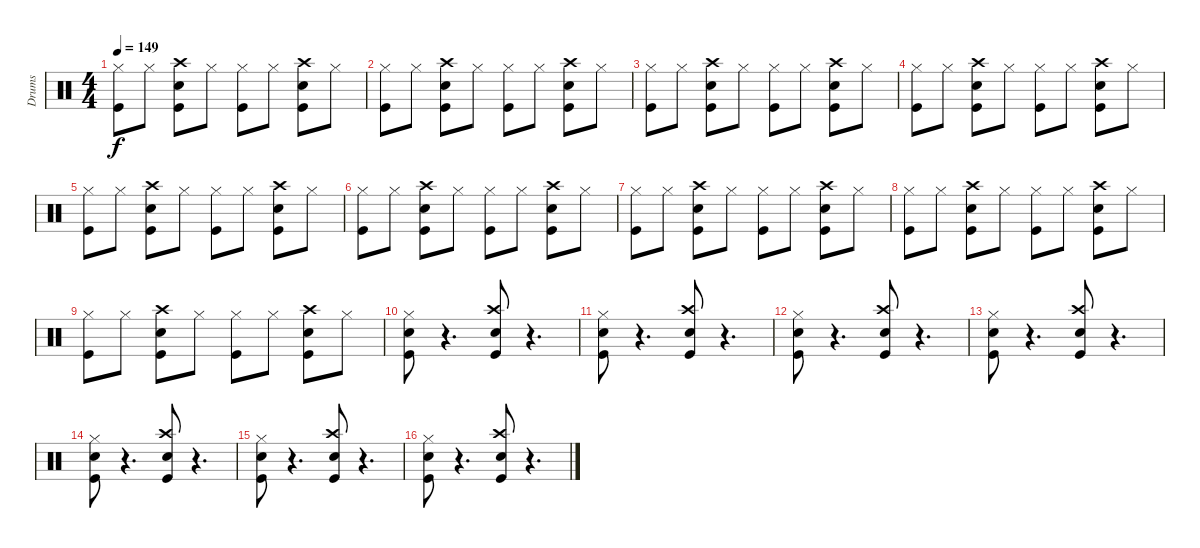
\track ("Drums" "Drums") {instrument percussion}
\staff {score}
\articulation defaults
\ts (4 4)
\tempo 149
\clef neutral
\ks c
("Hi-Hat (closed)" "Kick (hit)").8{dy f} "Hi-Hat (closed)".8 ("Crash high (hit)" "Snare (hit) 2" "Kick (hit)").8 "Hi-Hat (closed)".8 ("Hi-Hat (closed)" "Kick (hit)").8 "Hi-Hat (closed)".8 ("Crash high (hit)" "Kick (hit)" "Snare (hit) 2").8 "Hi-Hat (closed)".8 |
("Hi-Hat (closed)" "Kick (hit)").8 "Hi-Hat (closed)".8 ("Crash high (hit)" "Snare (hit) 2" "Kick (hit)").8 "Hi-Hat (closed)".8 ("Hi-Hat (closed)" "Kick (hit)").8 "Hi-Hat (closed)".8 ("Crash high (hit)" "Kick (hit)" "Snare (hit) 2").8 "Hi-Hat (closed)".8 |
("Hi-Hat (closed)" "Kick (hit)").8 "Hi-Hat (closed)".8 ("Crash high (hit)" "Snare (hit) 2" "Kick (hit)").8 "Hi-Hat (closed)".8 ("Hi-Hat (closed)" "Kick (hit)").8 "Hi-Hat (closed)".8 ("Crash high (hit)" "Kick (hit)" "Snare (hit) 2").8 "Hi-Hat (closed)".8 |
("Hi-Hat (closed)" "Kick (hit)").8 "Hi-Hat (closed)".8 ("Crash high (hit)" "Snare (hit) 2" "Kick (hit)").8 "Hi-Hat (closed)".8 ("Hi-Hat (closed)" "Kick (hit)").8 "Hi-Hat (closed)".8 ("Crash high (hit)" "Kick (hit)" "Snare (hit) 2").8 "Hi-Hat (closed)".8 |
("Hi-Hat (closed)" "Kick (hit)").8 "Hi-Hat (closed)".8 ("Crash high (hit)" "Snare (hit) 2" "Kick (hit)").8 "Hi-Hat (closed)".8 ("Hi-Hat (closed)" "Kick (hit)").8 "Hi-Hat (closed)".8 ("Crash high (hit)" "Kick (hit)" "Snare (hit) 2").8 "Hi-Hat (closed)".8 |
("Hi-Hat (closed)" "Kick (hit)").8 "Hi-Hat (closed)".8 ("Crash high (hit)" "Snare (hit) 2" "Kick (hit)").8 "Hi-Hat (closed)".8 ("Hi-Hat (closed)" "Kick (hit)").8 "Hi-Hat (closed)".8 ("Crash high (hit)" "Kick (hit)" "Snare (hit) 2").8 "Hi-Hat (closed)".8 |
("Hi-Hat (closed)" "Kick (hit)").8 "Hi-Hat (closed)".8 ("Crash high (hit)" "Snare (hit) 2" "Kick (hit)").8 "Hi-Hat (closed)".8 ("Hi-Hat (closed)" "Kick (hit)").8 "Hi-Hat (closed)".8 ("Crash high (hit)" "Kick (hit)" "Snare (hit) 2").8 "Hi-Hat (closed)".8 |
("Hi-Hat (closed)" "Kick (hit)").8 "Hi-Hat (closed)".8 ("Crash high (hit)" "Snare (hit) 2" "Kick (hit)").8 "Hi-Hat (closed)".8 ("Hi-Hat (closed)" "Kick (hit)").8 "Hi-Hat (closed)".8 ("Crash high (hit)" "Kick (hit)" "Snare (hit) 2").8 "Hi-Hat (closed)".8 |
("Hi-Hat (closed)" "Kick (hit)").8 "Hi-Hat (closed)".8 ("Crash high (hit)" "Snare (hit) 2" "Kick (hit)").8 "Hi-Hat (closed)".8 ("Kick (hit)" "Hi-Hat (closed)").8 "Hi-Hat (closed)".8 ("Crash high (hit)" "Kick (hit)" "Snare (hit) 2").8 "Hi-Hat (closed)".8 |
("Hi-Hat (closed)" "Snare (hit) 2" "Kick (hit)").8 r.4{d} ("Crash high (hit)" "Snare (hit) 2" "Kick (hit)").8 r.4{d} |
("Hi-Hat (closed)" "Snare (hit) 2" "Kick (hit)").8 r.4{d} ("Crash high (hit)" "Snare (hit) 2" "Kick (hit)").8 r.4{d} |
("Hi-Hat (closed)" "Snare (hit) 2" "Kick (hit)").8 r.4{d} ("Crash high (hit)" "Snare (hit) 2" "Kick (hit)").8 r.4{d} |
("Hi-Hat (closed)" "Snare (hit) 2" "Kick (hit)").8 r.4{d} ("Crash high (hit)" "Snare (hit) 2" "Kick (hit)").8 r.4{d} |
("Hi-Hat (closed)" "Snare (hit) 2" "Kick (hit)").8 r.4{d} ("Crash high (hit)" "Snare (hit) 2" "Kick (hit)").8 r.4{d} |
("Hi-Hat (closed)" "Snare (hit) 2" "Kick (hit)").8 r.4{d} ("Crash high (hit)" "Snare (hit) 2" "Kick (hit)").8 r.4{d} |
("Hi-Hat (closed)" "Snare (hit) 2" "Kick (hit)").8 r.4{d} ("Crash high (hit)" "Snare (hit) 2" "Kick (hit)").8 r.4{d}
